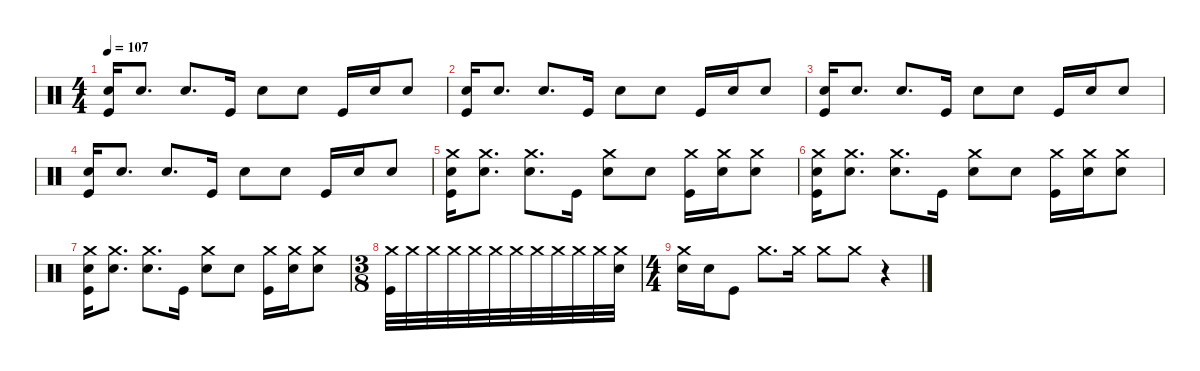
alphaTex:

\defaultSystemsLayout 4
\hideDynamics
\bracketExtendMode nobrackets
\singleTrackTrackNamePolicy hidden
\multiTrackTrackNamePolicy hidden
\firstSystemTrackNameMode fullname
\firstSystemTrackNameOrientation horizontal
\otherSystemsTrackNameOrientation horizontal
\track ("Mitch" "drm.") {instrument percussion}
\staff {score}
\articulation defaults
\ts (4 4)
\tempo 107
\clef neutral
\ks c
("Snare (hit) 2" "Kick (hit)").16{dy f beam Up} "Snare (hit) 2".8{d beam Up} "Snare (hit) 2".8{d beam Up} "Kick (hit)".16{beam Up} "Snare (hit) 2".8{beam Down} "Snare (hit) 2".8{beam Down} "Kick (hit)".16{beam Up} "Snare (hit) 2".16{beam Up} "Snare (hit) 2".8{beam Up} |
("Snare (hit) 2" "Kick (hit)").16{beam Up} "Snare (hit) 2".8{d beam Up} "Snare (hit) 2".8{d beam Up} "Kick (hit)".16{beam Up} "Snare (hit) 2".8{beam Down} "Snare (hit) 2".8{beam Down} "Kick (hit)".16{beam Up} "Snare (hit) 2".16{beam Up} "Snare (hit) 2".8{beam Up} |
("Snare (hit) 2" "Kick (hit)").16{beam Up} "Snare (hit) 2".8{d beam Up} "Snare (hit) 2".8{d beam Up} "Kick (hit)".16{beam Up} "Snare (hit) 2".8{beam Down} "Snare (hit) 2".8{beam Down} "Kick (hit)".16{beam Up} "Snare (hit) 2".16{beam Up} "Snare (hit) 2".8{beam Up} |
("Snare (hit) 2" "Kick (hit)").16{beam Up} "Snare (hit) 2".8{d beam Up} "Snare (hit) 2".8{d beam Up} "Kick (hit)".16{beam Up} "Snare (hit) 2".8{beam Down} "Snare (hit) 2".8{beam Down} "Kick (hit)".16{beam Up} "Snare (hit) 2".16{beam Up} "Snare (hit) 2".8{beam Up} |
("Crash medium (hit)" "Snare (hit) 2" "Kick (hit)").16{beam Down} ("Crash medium (hit)" "Snare (hit) 2").8{d beam Down} ("Crash medium (hit)" "Snare (hit) 2").8{d beam Down} "Kick (hit)".16{beam Down} ("Crash medium (hit)" "Snare (hit) 2").8{beam Down} "Snare (hit) 2".8{beam Down} ("Crash medium (hit)" "Kick (hit)").16{beam Down} ("Crash medium (hit)" "Snare (hit) 2").16{beam Down} ("Crash medium (hit)" "Snare (hit) 2").8{beam Down} |
("Crash medium (hit)" "Snare (hit) 2" "Kick (hit)").16{beam Down} ("Crash medium (hit)" "Snare (hit) 2").8{d beam Down} ("Crash medium (hit)" "Snare (hit) 2").8{d beam Down} "Kick (hit)".16{beam Down} ("Crash medium (hit)" "Snare (hit) 2").8{beam Down} "Snare (hit) 2".8{beam Down} ("Crash medium (hit)" "Kick (hit)").16{beam Down} ("Crash medium (hit)" "Snare (hit) 2").16{beam Down} ("Crash medium (hit)" "Snare (hit) 2").8{beam Down} |
("Crash medium (hit)" "Snare (hit) 2" "Kick (hit)").16{beam Down} ("Crash medium (hit)" "Snare (hit) 2").8{d beam Down} ("Crash medium (hit)" "Snare (hit) 2").8{d beam Down} "Kick (hit)".16{beam Down} ("Crash medium (hit)" "Snare (hit) 2").8{beam Down} "Snare (hit) 2".8{beam Down} ("Crash medium (hit)" "Kick (hit)").16{beam Down} ("Crash medium (hit)" "Snare (hit) 2").16{beam Down} ("Crash medium (hit)" "Snare (hit) 2").8{beam Down} |
\ts (3 8)
("Crash medium (hit)" "Kick (hit)").32{beam Down} "Crash medium (hit)".32{beam Down} "Crash medium (hit)".32{beam Down} "Crash medium (hit)".32{beam Down} "Crash medium (hit)".32{beam Down} "Crash medium (hit)".32{beam Down} "Crash medium (hit)".32{beam Down} "Crash medium (hit)".32{beam Down} "Crash medium (hit)".32{beam Down} "Crash medium (hit)".32{beam Down} "Crash medium (hit)".32{beam Down} ("Crash medium (hit)" "Snare (hit) 2").32{beam Down} |
\ts (4 4)
("Crash medium (hit)" "Snare (hit) 2").16{beam Down} "Snare (hit) 2".16{beam Down} "Kick (hit)".8{beam Down} "Crash medium (hit)".8{d beam Down} "Crash medium (hit)".16{beam Down} "Crash medium (hit)".8{beam Down} "Crash medium (hit)".8{beam Down} r.4{beam Down}
